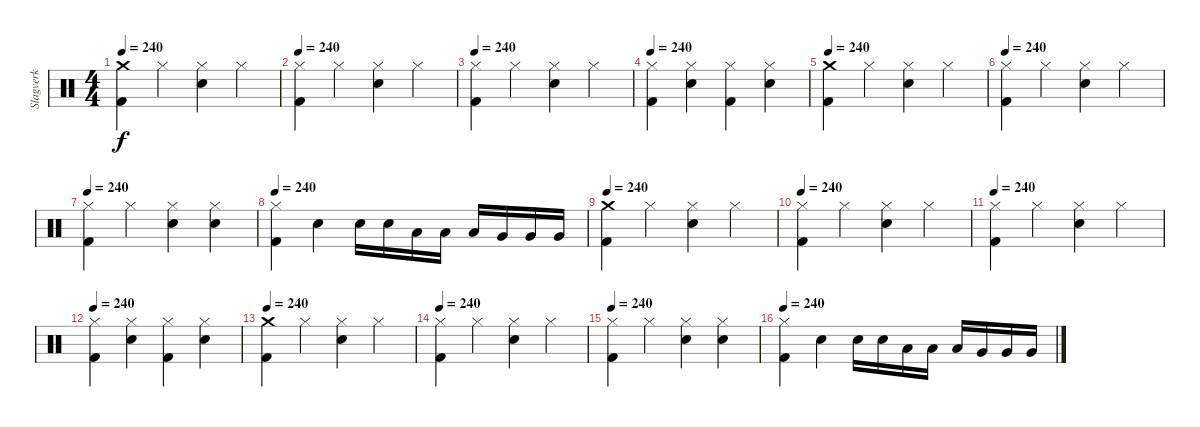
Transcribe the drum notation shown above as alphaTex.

\track ("Slagverk" "Slagverk") {instrument percussion}
\staff {score}
\articulation defaults
\ts (4 4)
\tempo 240
\clef neutral
\ks c
("Crash medium (hit)" "Kick (hit) 2").4{dy f volume 11 balance 8} "Hi-Hat (closed)".4 ("Hi-Hat (closed)" "Electric Snare (hit)").4 "Hi-Hat (closed)".4 |
\tempo 240
("Hi-Hat (closed)" "Kick (hit) 2").4{volume 11 balance 8} "Hi-Hat (closed)".4 ("Hi-Hat (closed)" "Electric Snare (hit)").4 "Hi-Hat (closed)".4 |
\tempo 240
("Hi-Hat (closed)" "Kick (hit) 2").4{volume 11 balance 8} "Hi-Hat (closed)".4 ("Hi-Hat (closed)" "Electric Snare (hit)").4 "Hi-Hat (closed)".4 |
\tempo 240
("Hi-Hat (closed)" "Kick (hit) 2").4{volume 11 balance 8} ("Hi-Hat (closed)" "Electric Snare (hit)").4 ("Hi-Hat (closed)" "Kick (hit) 2").4 ("Hi-Hat (closed)" "Electric Snare (hit)").4 |
\tempo 240
("Crash medium (hit)" "Kick (hit) 2").4{volume 11 balance 8} "Hi-Hat (closed)".4 ("Hi-Hat (closed)" "Electric Snare (hit)").4 "Hi-Hat (closed)".4 |
\tempo 240
("Hi-Hat (closed)" "Kick (hit) 2").4{volume 11 balance 8} "Hi-Hat (closed)".4 ("Hi-Hat (closed)" "Electric Snare (hit)").4 "Hi-Hat (closed)".4 |
\tempo 240
("Hi-Hat (closed)" "Kick (hit) 2").4{volume 11 balance 8} "Hi-Hat (closed)".4 ("Hi-Hat (closed)" "Electric Snare (hit)").4 ("Hi-Hat (closed)" "Electric Snare (hit)").4 |
\tempo 240
("Hi-Hat (closed)" "Kick (hit) 2").4{volume 11 balance 8} "Electric Snare (hit)".4 "Electric Snare (hit)".16 "Electric Snare (hit)".16 "Low Tom (hit)".16 "Low Tom (hit)".16 "Low Tom (hit)".16 "Very Low Tom (hit)".16 "Very Low Tom (hit)".16 "Very Low Tom (hit)".16 |
\tempo 240
("Crash medium (hit)" "Kick (hit) 2").4{volume 11 balance 8} "Hi-Hat (closed)".4 ("Hi-Hat (closed)" "Electric Snare (hit)").4 "Hi-Hat (closed)".4 |
\tempo 240
("Hi-Hat (closed)" "Kick (hit) 2").4{volume 11 balance 8} "Hi-Hat (closed)".4 ("Hi-Hat (closed)" "Electric Snare (hit)").4 "Hi-Hat (closed)".4 |
\tempo 240
("Hi-Hat (closed)" "Kick (hit) 2").4{volume 11 balance 8} "Hi-Hat (closed)".4 ("Hi-Hat (closed)" "Electric Snare (hit)").4 "Hi-Hat (closed)".4 |
\tempo 240
("Hi-Hat (closed)" "Kick (hit) 2").4{volume 11 balance 8} ("Hi-Hat (closed)" "Electric Snare (hit)").4 ("Hi-Hat (closed)" "Kick (hit) 2").4 ("Hi-Hat (closed)" "Electric Snare (hit)").4 |
\tempo 240
("Crash medium (hit)" "Kick (hit) 2").4{volume 11 balance 8} "Hi-Hat (closed)".4 ("Hi-Hat (closed)" "Electric Snare (hit)").4 "Hi-Hat (closed)".4 |
\tempo 240
("Hi-Hat (closed)" "Kick (hit) 2").4{volume 11 balance 8} "Hi-Hat (closed)".4 ("Hi-Hat (closed)" "Electric Snare (hit)").4 "Hi-Hat (closed)".4 |
\tempo 240
("Hi-Hat (closed)" "Kick (hit) 2").4{volume 11 balance 8} "Hi-Hat (closed)".4 ("Hi-Hat (closed)" "Electric Snare (hit)").4 ("Hi-Hat (closed)" "Electric Snare (hit)").4 |
\tempo 240
("Hi-Hat (closed)" "Kick (hit) 2").4{volume 11 balance 8} "Electric Snare (hit)".4 "Electric Snare (hit)".16 "Electric Snare (hit)".16 "Low Tom (hit)".16 "Low Tom (hit)".16 "Low Tom (hit)".16 "Very Low Tom (hit)".16 "Very Low Tom (hit)".16 "Very Low Tom (hit)".16
